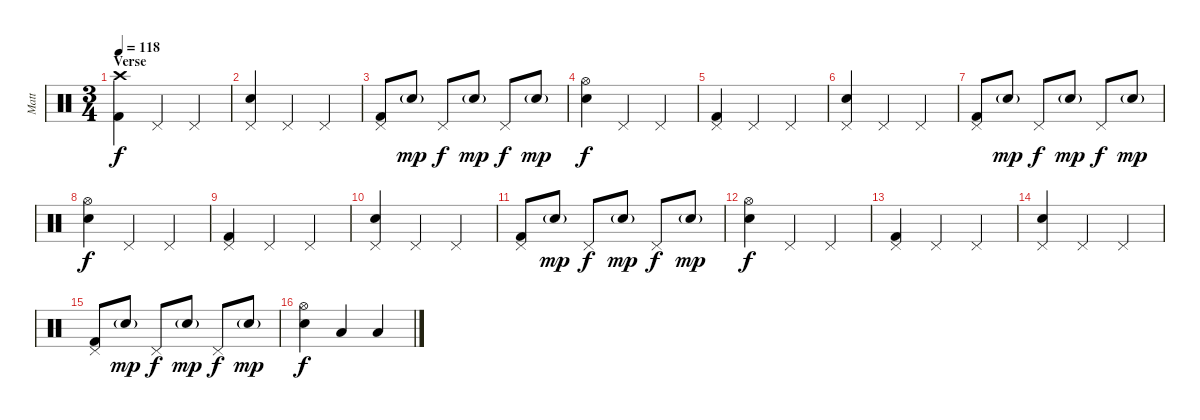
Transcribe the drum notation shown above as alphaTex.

\track ("Matt" "Matt") {instrument percussion}
\staff {score}
\articulation defaults
\ts (3 4)
\section ("" "Verse")
\tempo 118
\clef neutral
\ks c
("Crash high (hit)" "Kick (hit) 2").4{dy f} "Pedal Hi-Hat (hit)".4 "Pedal Hi-Hat (hit)".4 |
("Pedal Hi-Hat (hit)" "Snare (hit) 2").4 "Pedal Hi-Hat (hit)".4 "Pedal Hi-Hat (hit)".4 |
("Pedal Hi-Hat (hit)" "Kick (hit) 2").8 "Snare (hit) 2"{g}.8{dy mp} "Pedal Hi-Hat (hit)".8{dy f} "Snare (hit) 2"{g}.8{dy mp} "Pedal Hi-Hat (hit)".8{dy f} "Snare (hit) 2"{g}.8{dy mp} |
("Hi-Hat (open)" "Snare (hit) 2").4{dy f} "Pedal Hi-Hat (hit)".4 "Pedal Hi-Hat (hit)".4 |
("Pedal Hi-Hat (hit)" "Kick (hit) 2").4 "Pedal Hi-Hat (hit)".4 "Pedal Hi-Hat (hit)".4 |
("Pedal Hi-Hat (hit)" "Snare (hit) 2").4 "Pedal Hi-Hat (hit)".4 "Pedal Hi-Hat (hit)".4 |
("Pedal Hi-Hat (hit)" "Kick (hit) 2").8 "Snare (hit) 2"{g}.8{dy mp} "Pedal Hi-Hat (hit)".8{dy f} "Snare (hit) 2"{g}.8{dy mp} "Pedal Hi-Hat (hit)".8{dy f} "Snare (hit) 2"{g}.8{dy mp} |
("Hi-Hat (open)" "Snare (hit) 2").4{dy f} "Pedal Hi-Hat (hit)".4 "Pedal Hi-Hat (hit)".4 |
("Pedal Hi-Hat (hit)" "Kick (hit) 2").4 "Pedal Hi-Hat (hit)".4 "Pedal Hi-Hat (hit)".4 |
("Pedal Hi-Hat (hit)" "Snare (hit) 2").4 "Pedal Hi-Hat (hit)".4 "Pedal Hi-Hat (hit)".4 |
("Pedal Hi-Hat (hit)" "Kick (hit) 2").8 "Snare (hit) 2"{g}.8{dy mp} "Pedal Hi-Hat (hit)".8{dy f} "Snare (hit) 2"{g}.8{dy mp} "Pedal Hi-Hat (hit)".8{dy f} "Snare (hit) 2"{g}.8{dy mp} |
("Hi-Hat (open)" "Snare (hit) 2").4{dy f} "Pedal Hi-Hat (hit)".4 "Pedal Hi-Hat (hit)".4 |
("Pedal Hi-Hat (hit)" "Kick (hit) 2").4 "Pedal Hi-Hat (hit)".4 "Pedal Hi-Hat (hit)".4 |
("Pedal Hi-Hat (hit)" "Snare (hit) 2").4 "Pedal Hi-Hat (hit)".4 "Pedal Hi-Hat (hit)".4 |
("Pedal Hi-Hat (hit)" "Kick (hit) 2").8 "Snare (hit) 2"{g}.8{dy mp} "Pedal Hi-Hat (hit)".8{dy f} "Snare (hit) 2"{g}.8{dy mp} "Pedal Hi-Hat (hit)".8{dy f} "Snare (hit) 2"{g}.8{dy mp} |
("Hi-Hat (open)" "Snare (hit) 2").4{dy f} "Low Tom (hit)".4 "Low Floor Tom (hit)".4
